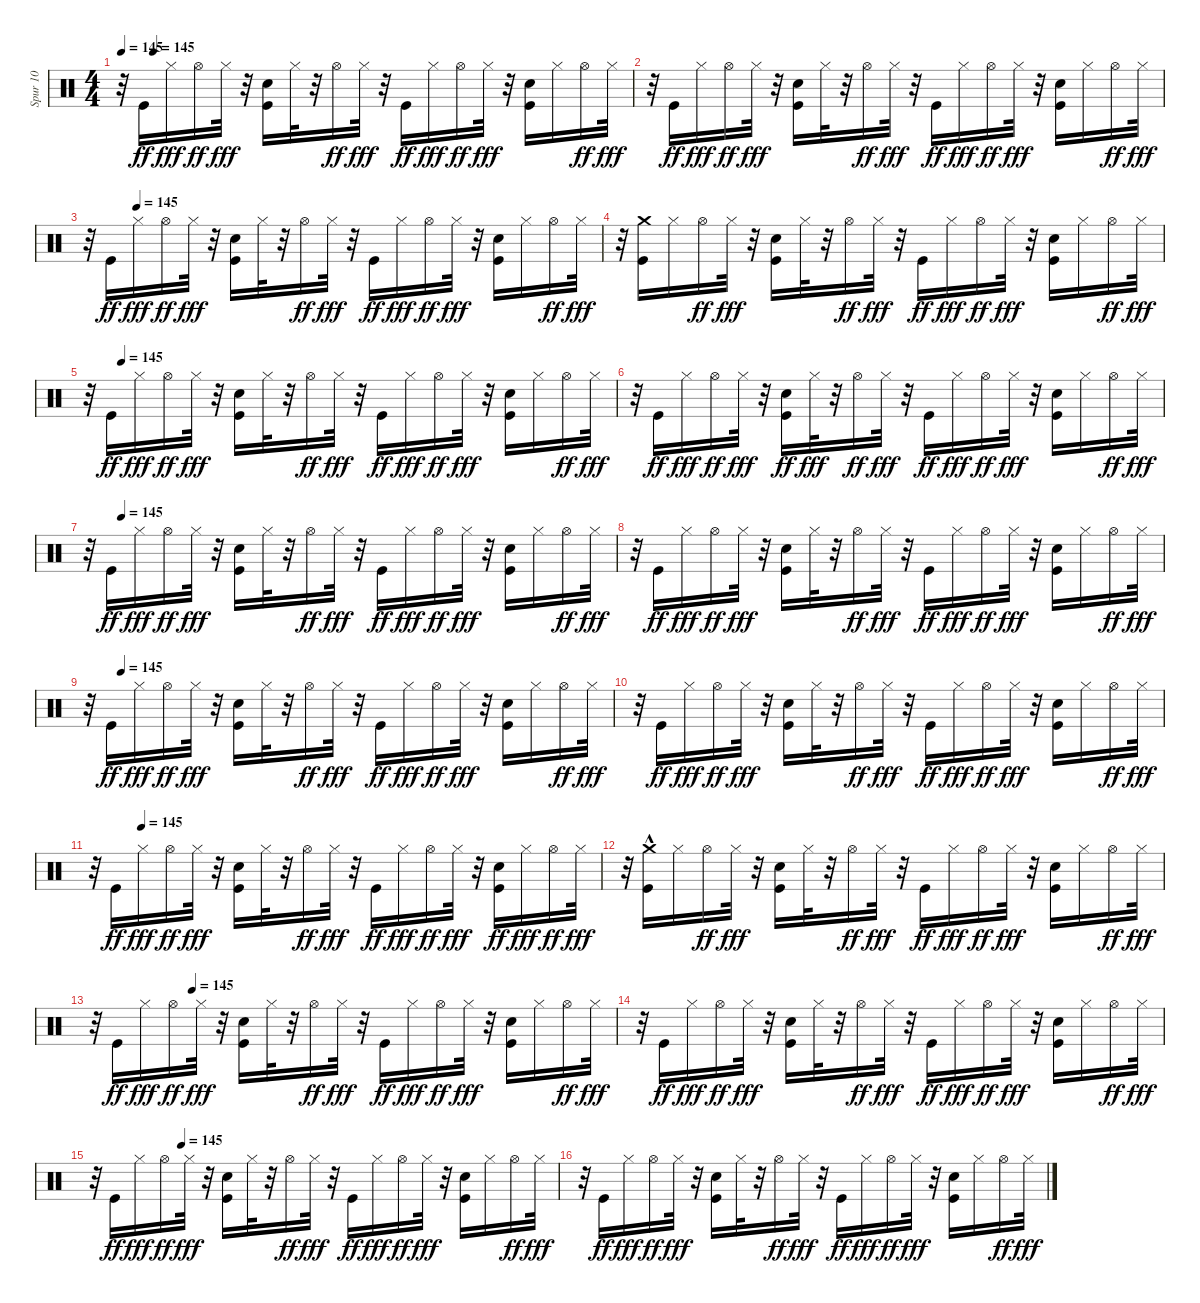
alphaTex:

\track ("Spur 10" "Spur 10") {instrument percussion}
\staff {score}
\articulation defaults
\ts (4 4)
\tempo 145
\tempo (145 0.0625)
\clef neutral
\ks c
r.32{dy fff} "Kick (hit)".16{dy ff} "Hi-Hat (closed)".16{dy fff} "Hi-Hat (open)".16{dy ff} "Hi-Hat (closed)".32{dy fff} r.32 ("Kick (hit)" "Hand Clap (hit)").16 "Hi-Hat (closed)".32 r.32 "Hi-Hat (open)".16{dy ff} "Hi-Hat (closed)".32{dy fff} r.32 "Kick (hit)".16{dy ff} "Hi-Hat (closed)".16{dy fff} "Hi-Hat (open)".16{dy ff} "Hi-Hat (closed)".32{dy fff} r.32 ("Kick (hit)" "Hand Clap (hit)").16 "Hi-Hat (closed)".16 "Hi-Hat (open)".16{dy ff} "Hi-Hat (closed)".32{dy fff} |
r.32 "Kick (hit)".16{dy ff} "Hi-Hat (closed)".16{dy fff} "Hi-Hat (open)".16{dy ff} "Hi-Hat (closed)".32{dy fff} r.32 ("Kick (hit)" "Hand Clap (hit)").16 "Hi-Hat (closed)".32 r.32 "Hi-Hat (open)".16{dy ff} "Hi-Hat (closed)".32{dy fff} r.32 "Kick (hit)".16{dy ff} "Hi-Hat (closed)".16{dy fff} "Hi-Hat (open)".16{dy ff} "Hi-Hat (closed)".32{dy fff} r.32 ("Kick (hit)" "Hand Clap (hit)").16 "Hi-Hat (closed)".16 "Hi-Hat (open)".16{dy ff} "Hi-Hat (closed)".32{dy fff} |
\tempo (145 0.09375)
r.32 "Kick (hit)".16{dy ff} "Hi-Hat (closed)".16{dy fff} "Hi-Hat (open)".16{dy ff} "Hi-Hat (closed)".32{dy fff} r.32 ("Kick (hit)" "Hand Clap (hit)").16 "Hi-Hat (closed)".32 r.32 "Hi-Hat (open)".16{dy ff} "Hi-Hat (closed)".32{dy fff} r.32 "Kick (hit)".16{dy ff} "Hi-Hat (closed)".16{dy fff} "Hi-Hat (open)".16{dy ff} "Hi-Hat (closed)".32{dy fff} r.32 ("Kick (hit)" "Hand Clap (hit)").16 "Hi-Hat (closed)".16 "Hi-Hat (open)".16{dy ff} "Hi-Hat (closed)".32{dy fff} |
r.32 ("Kick (hit)" "Crash medium (hit)").16 "Hi-Hat (closed)".16 "Hi-Hat (open)".16{dy ff} "Hi-Hat (closed)".32{dy fff} r.32 ("Kick (hit)" "Hand Clap (hit)").16 "Hi-Hat (closed)".32 r.32 "Hi-Hat (open)".16{dy ff} "Hi-Hat (closed)".32{dy fff} r.32 "Kick (hit)".16{dy ff} "Hi-Hat (closed)".16{dy fff} "Hi-Hat (open)".16{dy ff} "Hi-Hat (closed)".32{dy fff} r.32 ("Kick (hit)" "Hand Clap (hit)").16 "Hi-Hat (closed)".16 "Hi-Hat (open)".16{dy ff} "Hi-Hat (closed)".32{dy fff} |
\tempo (145 0.0625)
r.32 "Kick (hit)".16{dy ff} "Hi-Hat (closed)".16{dy fff} "Hi-Hat (open)".16{dy ff} "Hi-Hat (closed)".32{dy fff} r.32 ("Kick (hit)" "Hand Clap (hit)").16 "Hi-Hat (closed)".32 r.32 "Hi-Hat (open)".16{dy ff} "Hi-Hat (closed)".32{dy fff} r.32 "Kick (hit)".16{dy ff} "Hi-Hat (closed)".16{dy fff} "Hi-Hat (open)".16{dy ff} "Hi-Hat (closed)".32{dy fff} r.32 ("Kick (hit)" "Hand Clap (hit)").16 "Hi-Hat (closed)".16 "Hi-Hat (open)".16{dy ff} "Hi-Hat (closed)".32{dy fff} |
r.32 "Kick (hit)".16{dy ff} "Hi-Hat (closed)".16{dy fff} "Hi-Hat (open)".16{dy ff} "Hi-Hat (closed)".32{dy fff} r.32 ("Hand Clap (hit)" "Kick (hit)").16{dy ff} "Hi-Hat (closed)".32{dy fff} r.32 "Hi-Hat (open)".16{dy ff} "Hi-Hat (closed)".32{dy fff} r.32 "Kick (hit)".16{dy ff} "Hi-Hat (closed)".16{dy fff} "Hi-Hat (open)".16{dy ff} "Hi-Hat (closed)".32{dy fff} r.32 ("Kick (hit)" "Hand Clap (hit)").16 "Hi-Hat (closed)".16 "Hi-Hat (open)".16{dy ff} "Hi-Hat (closed)".32{dy fff} |
\tempo (145 0.0625)
r.32 "Kick (hit)".16{dy ff} "Hi-Hat (closed)".16{dy fff} "Hi-Hat (open)".16{dy ff} "Hi-Hat (closed)".32{dy fff} r.32 ("Kick (hit)" "Hand Clap (hit)").16 "Hi-Hat (closed)".32 r.32 "Hi-Hat (open)".16{dy ff} "Hi-Hat (closed)".32{dy fff} r.32 "Kick (hit)".16{dy ff} "Hi-Hat (closed)".16{dy fff} "Hi-Hat (open)".16{dy ff} "Hi-Hat (closed)".32{dy fff} r.32 ("Kick (hit)" "Hand Clap (hit)").16 "Hi-Hat (closed)".16 "Hi-Hat (open)".16{dy ff} "Hi-Hat (closed)".32{dy fff} |
r.32 "Kick (hit)".16{dy ff} "Hi-Hat (closed)".16{dy fff} "Hi-Hat (open)".16{dy ff} "Hi-Hat (closed)".32{dy fff} r.32 ("Kick (hit)" "Hand Clap (hit)").16 "Hi-Hat (closed)".32 r.32 "Hi-Hat (open)".16{dy ff} "Hi-Hat (closed)".32{dy fff} r.32 "Kick (hit)".16{dy ff} "Hi-Hat (closed)".16{dy fff} "Hi-Hat (open)".16{dy ff} "Hi-Hat (closed)".32{dy fff} r.32 ("Kick (hit)" "Hand Clap (hit)").16 "Hi-Hat (closed)".16 "Hi-Hat (open)".16{dy ff} "Hi-Hat (closed)".32{dy fff} |
\tempo (145 0.0625)
r.32 "Kick (hit)".16{dy ff} "Hi-Hat (closed)".16{dy fff} "Hi-Hat (open)".16{dy ff} "Hi-Hat (closed)".32{dy fff} r.32 ("Kick (hit)" "Hand Clap (hit)").16 "Hi-Hat (closed)".32 r.32 "Hi-Hat (open)".16{dy ff} "Hi-Hat (closed)".32{dy fff} r.32 "Kick (hit)".16{dy ff} "Hi-Hat (closed)".16{dy fff} "Hi-Hat (open)".16{dy ff} "Hi-Hat (closed)".32{dy fff} r.32 ("Kick (hit)" "Hand Clap (hit)").16 "Hi-Hat (closed)".16 "Hi-Hat (open)".16{dy ff} "Hi-Hat (closed)".32{dy fff} |
r.32 "Kick (hit)".16{dy ff} "Hi-Hat (closed)".16{dy fff} "Hi-Hat (open)".16{dy ff} "Hi-Hat (closed)".32{dy fff} r.32 ("Kick (hit)" "Hand Clap (hit)").16 "Hi-Hat (closed)".32 r.32 "Hi-Hat (open)".16{dy ff} "Hi-Hat (closed)".32{dy fff} r.32 "Kick (hit)".16{dy ff} "Hi-Hat (closed)".16{dy fff} "Hi-Hat (open)".16{dy ff} "Hi-Hat (closed)".32{dy fff} r.32 ("Kick (hit)" "Hand Clap (hit)").16 "Hi-Hat (closed)".16 "Hi-Hat (open)".16{dy ff} "Hi-Hat (closed)".32{dy fff} |
\tempo (145 0.09375)
r.32 "Kick (hit)".16{dy ff} "Hi-Hat (closed)".16{dy fff} "Hi-Hat (open)".16{dy ff} "Hi-Hat (closed)".32{dy fff} r.32 ("Kick (hit)" "Hand Clap (hit)").16 "Hi-Hat (closed)".32 r.32 "Hi-Hat (open)".16{dy ff} "Hi-Hat (closed)".32{dy fff} r.32 "Kick (hit)".16{dy ff} "Hi-Hat (closed)".16{dy fff} "Hi-Hat (open)".16{dy ff} "Hi-Hat (closed)".32{dy fff} r.32 ("Hand Clap (hit)" "Kick (hit)").16{dy ff} "Hi-Hat (closed)".16{dy fff} "Hi-Hat (open)".16{dy ff} "Hi-Hat (closed)".32{dy fff} |
r.32 ("Kick (hit)" "Crash medium (hit)"{hac}).16 "Hi-Hat (closed)".16 "Hi-Hat (open)".16{dy ff} "Hi-Hat (closed)".32{dy fff} r.32 ("Kick (hit)" "Hand Clap (hit)").16 "Hi-Hat (closed)".32 r.32 "Hi-Hat (open)".16{dy ff} "Hi-Hat (closed)".32{dy fff} r.32 "Kick (hit)".16{dy ff} "Hi-Hat (closed)".16{dy fff} "Hi-Hat (open)".16{dy ff} "Hi-Hat (closed)".32{dy fff} r.32 ("Kick (hit)" "Hand Clap (hit)").16 "Hi-Hat (closed)".16 "Hi-Hat (open)".16{dy ff} "Hi-Hat (closed)".32{dy fff} |
\tempo (145 0.1875)
r.32 "Kick (hit)".16{dy ff} "Hi-Hat (closed)".16{dy fff} "Hi-Hat (open)".16{dy ff} "Hi-Hat (closed)".32{dy fff} r.32 ("Kick (hit)" "Hand Clap (hit)").16 "Hi-Hat (closed)".32 r.32 "Hi-Hat (open)".16{dy ff} "Hi-Hat (closed)".32{dy fff} r.32 "Kick (hit)".16{dy ff} "Hi-Hat (closed)".16{dy fff} "Hi-Hat (open)".16{dy ff} "Hi-Hat (closed)".32{dy fff} r.32 ("Kick (hit)" "Hand Clap (hit)").16 "Hi-Hat (closed)".16 "Hi-Hat (open)".16{dy ff} "Hi-Hat (closed)".32{dy fff} |
r.32 "Kick (hit)".16{dy ff} "Hi-Hat (closed)".16{dy fff} "Hi-Hat (open)".16{dy ff} "Hi-Hat (closed)".32{dy fff} r.32 ("Kick (hit)" "Hand Clap (hit)").16 "Hi-Hat (closed)".32 r.32 "Hi-Hat (open)".16{dy ff} "Hi-Hat (closed)".32{dy fff} r.32 "Kick (hit)".16{dy ff} "Hi-Hat (closed)".16{dy fff} "Hi-Hat (open)".16{dy ff} "Hi-Hat (closed)".32{dy fff} r.32 ("Kick (hit)" "Hand Clap (hit)").16 "Hi-Hat (closed)".16 "Hi-Hat (open)".16{dy ff} "Hi-Hat (closed)".32{dy fff} |
\tempo (145 0.1875)
r.32 "Kick (hit)".16{dy ff} "Hi-Hat (closed)".16{dy fff} "Hi-Hat (open)".16{dy ff} "Hi-Hat (closed)".32{dy fff} r.32 ("Kick (hit)" "Hand Clap (hit)").16 "Hi-Hat (closed)".32 r.32 "Hi-Hat (open)".16{dy ff} "Hi-Hat (closed)".32{dy fff} r.32 "Kick (hit)".16{dy ff} "Hi-Hat (closed)".16{dy fff} "Hi-Hat (open)".16{dy ff} "Hi-Hat (closed)".32{dy fff} r.32 ("Kick (hit)" "Hand Clap (hit)").16 "Hi-Hat (closed)".16 "Hi-Hat (open)".16{dy ff} "Hi-Hat (closed)".32{dy fff} |
r.32 "Kick (hit)".16{dy ff} "Hi-Hat (closed)".16{dy fff} "Hi-Hat (open)".16{dy ff} "Hi-Hat (closed)".32{dy fff} r.32 ("Kick (hit)" "Hand Clap (hit)").16 "Hi-Hat (closed)".32 r.32 "Hi-Hat (open)".16{dy ff} "Hi-Hat (closed)".32{dy fff} r.32 "Kick (hit)".16{dy ff} "Hi-Hat (closed)".16{dy fff} "Hi-Hat (open)".16{dy ff} "Hi-Hat (closed)".32{dy fff} r.32 ("Kick (hit)" "Hand Clap (hit)").16 "Hi-Hat (closed)".16 "Hi-Hat (open)".16{dy ff} "Hi-Hat (closed)".32{dy fff}
